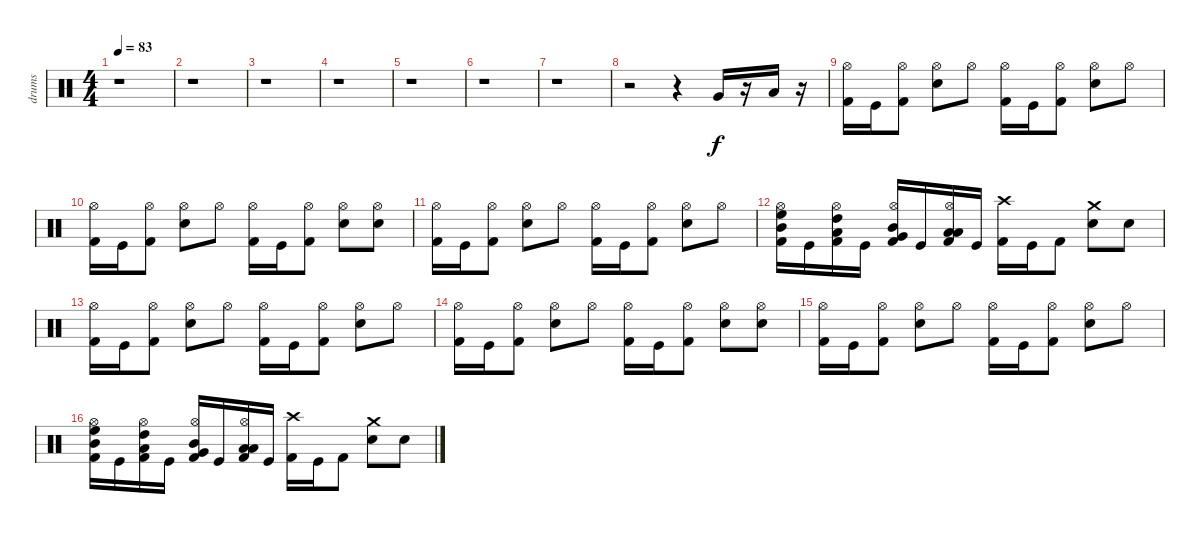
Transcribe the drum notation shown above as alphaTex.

\track ("drums" "drums") {instrument percussion}
\staff {score}
\articulation defaults
\ts (4 4)
\tempo 83
\clef neutral
\ks c
r.1{dy f} |
r.1 |
r.1 |
r.1 |
r.1 |
r.1 |
r.1 |
r.2 r.4 "Very Low Tom (hit)".16 r.16 "Low Floor Tom (hit)".16 r.16 |
("Hi-Hat (open)" "Kick (hit) 2").16 "Kick (hit)".16 ("Kick (hit) 2" "Hi-Hat (open)").8 ("Electric Snare (hit)" "Hi-Hat (open)").8 "Hi-Hat (open)".8 ("Kick (hit) 2" "Hi-Hat (open)").16 "Kick (hit)".16 ("Kick (hit) 2" "Hi-Hat (open)").8 ("Electric Snare (hit)" "Hi-Hat (open)").8 "Hi-Hat (open)".8 |
("Kick (hit) 2" "Hi-Hat (open)").16 "Kick (hit)".16 ("Kick (hit) 2" "Hi-Hat (open)").8 ("Electric Snare (hit)" "Hi-Hat (open)").8 "Hi-Hat (open)".8 ("Kick (hit) 2" "Hi-Hat (open)").16 "Kick (hit)".16 ("Kick (hit) 2" "Hi-Hat (open)").8 ("Electric Snare (hit)" "Hi-Hat (open)").8 ("Snare (hit) 2" "Hi-Hat (open)").8 |
("Hi-Hat (open)" "Kick (hit) 2").16 "Kick (hit)".16 ("Kick (hit) 2" "Hi-Hat (open)").8 ("Electric Snare (hit)" "Hi-Hat (open)").8 "Hi-Hat (open)".8 ("Kick (hit) 2" "Hi-Hat (open)").16 "Kick (hit)".16 ("Kick (hit) 2" "Hi-Hat (open)").8 ("Electric Snare (hit)" "Hi-Hat (open)").8 "Hi-Hat (open)".8 |
("Kick (hit) 2" "Mid Tom (hit)" "High Floor Tom (hit)" "Hi-Hat (open)").16 "Kick (hit)".16 ("Kick (hit) 2" "Low Tom (hit)" "High Tom (hit)" "Hi-Hat (open)").16 "Kick (hit)".16 ("Kick (hit) 2" "Very Low Tom (hit)" "Mid Tom (hit)" "Hi-Hat (open)").16 "Kick (hit)".16 ("Kick (hit) 2" "Low Floor Tom (hit)" "Low Tom (hit)" "Hi-Hat (open)").16 "Kick (hit)".16 ("Kick (hit) 2" "Crash high (hit)").16 "Kick (hit)".16 "Kick (hit) 2".8 ("Electric Snare (hit)" "Crash medium (hit)").8 "Snare (hit) 2".8 |
("Hi-Hat (open)" "Kick (hit) 2").16 "Kick (hit)".16 ("Kick (hit) 2" "Hi-Hat (open)").8 ("Electric Snare (hit)" "Hi-Hat (open)").8 "Hi-Hat (open)".8 ("Kick (hit) 2" "Hi-Hat (open)").16 "Kick (hit)".16 ("Kick (hit) 2" "Hi-Hat (open)").8 ("Electric Snare (hit)" "Hi-Hat (open)").8 "Hi-Hat (open)".8 |
("Kick (hit) 2" "Hi-Hat (open)").16 "Kick (hit)".16 ("Kick (hit) 2" "Hi-Hat (open)").8 ("Electric Snare (hit)" "Hi-Hat (open)").8 "Hi-Hat (open)".8 ("Kick (hit) 2" "Hi-Hat (open)").16 "Kick (hit)".16 ("Kick (hit) 2" "Hi-Hat (open)").8 ("Electric Snare (hit)" "Hi-Hat (open)").8 ("Snare (hit) 2" "Hi-Hat (open)").8 |
("Hi-Hat (open)" "Kick (hit) 2").16 "Kick (hit)".16 ("Kick (hit) 2" "Hi-Hat (open)").8 ("Electric Snare (hit)" "Hi-Hat (open)").8 "Hi-Hat (open)".8 ("Kick (hit) 2" "Hi-Hat (open)").16 "Kick (hit)".16 ("Kick (hit) 2" "Hi-Hat (open)").8 ("Electric Snare (hit)" "Hi-Hat (open)").8 "Hi-Hat (open)".8 |
("Kick (hit) 2" "Mid Tom (hit)" "High Floor Tom (hit)" "Hi-Hat (open)").16 "Kick (hit)".16 ("Kick (hit) 2" "Low Tom (hit)" "High Tom (hit)" "Hi-Hat (open)").16 "Kick (hit)".16 ("Kick (hit) 2" "Very Low Tom (hit)" "Mid Tom (hit)" "Hi-Hat (open)").16 "Kick (hit)".16 ("Kick (hit) 2" "Low Floor Tom (hit)" "Low Tom (hit)" "Hi-Hat (open)").16 "Kick (hit)".16 ("Kick (hit) 2" "Crash high (hit)").16 "Kick (hit)".16 "Kick (hit) 2".8 ("Electric Snare (hit)" "Crash medium (hit)").8 "Snare (hit) 2".8
